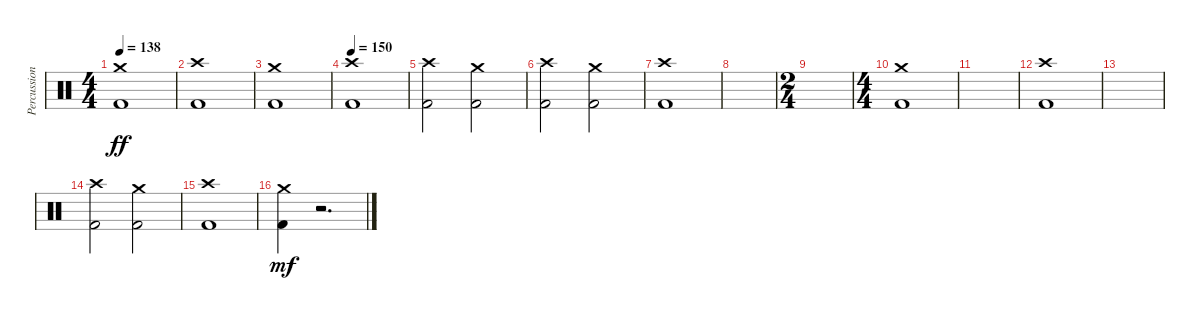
\track ("Percussion" "Percussion") {instrument percussion}
\staff {score}
\articulation defaults
\ts (4 4)
\tempo 138
\clef neutral
\ks c
("Crash medium (hit)" "Kick (hit) 2").1{dy ff} |
("Crash high (hit)" "Kick (hit) 2").1 |
("Crash medium (hit)" "Kick (hit) 2").1 |
\tempo 150
("Crash high (hit)" "Kick (hit) 2").1 |
("Crash high (hit)" "Kick (hit) 2").2 ("Crash medium (hit)" "Kick (hit) 2").2 |
("Crash high (hit)" "Kick (hit) 2").2 ("Crash medium (hit)" "Kick (hit) 2").2 |
("Crash high (hit)" "Kick (hit) 2").1 |
|
\ts (2 4)
|
\ts (4 4)
("Crash medium (hit)" "Kick (hit) 2").1 |
|
("Crash high (hit)" "Kick (hit) 2").1 |
|
("Crash high (hit)" "Kick (hit) 2").2 ("Crash medium (hit)" "Kick (hit) 2").2 |
("Crash high (hit)" "Kick (hit) 2").1 |
("Crash medium (hit)" "Kick (hit) 2").4{dy mf} r.2{d}
